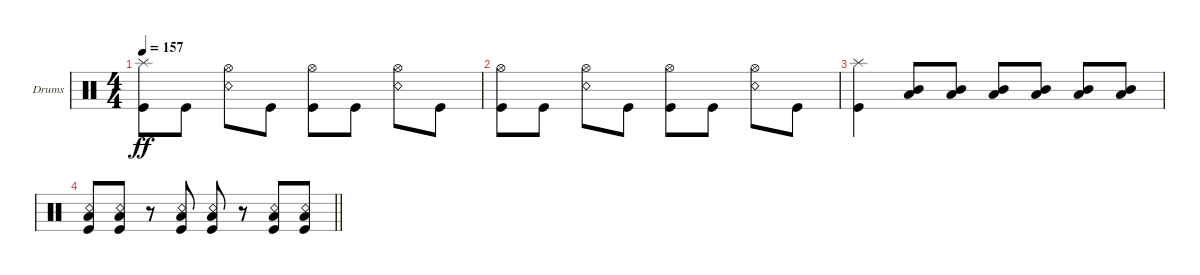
\defaultSystemsLayout 4
\bracketExtendMode groupsimilarinstruments
\firstSystemTrackNameOrientation horizontal
\otherSystemsTrackNameOrientation horizontal
\track ("Drumkit" "Drums") {instrument percussion}
\staff {score}
\articulation defaults
\ts (4 4)
\tempo 157
\clef neutral
\ks c
("Kick (hit)" "Splash (hit)").8{dy ff} "Kick (hit)".8 ("Hi-Hat (open)" "Snare (rim shot)").8 "Kick (hit)".8 ("Hi-Hat (open)" "Kick (hit)").8 "Kick (hit)".8 ("Hi-Hat (open)" "Snare (rim shot)").8 "Kick (hit)".8 |
("Kick (hit)" "Hi-Hat (open)").8 "Kick (hit)".8 ("Hi-Hat (open)" "Snare (rim shot)").8 "Kick (hit)".8 ("Hi-Hat (open)" "Kick (hit)").8 "Kick (hit)".8 ("Hi-Hat (open)" "Snare (rim shot)").8 "Kick (hit)".8 |
("Splash (hit)" "Kick (hit)").4 ("Low Tom (hit)" "Mid Tom (hit)").8 ("Low Tom (hit)" "Mid Tom (hit)").8 ("Low Tom (hit)" "Mid Tom (hit)").8 ("Low Tom (hit)" "Mid Tom (hit)").8 ("Low Tom (hit)" "Mid Tom (hit)").8 ("Low Tom (hit)" "Mid Tom (hit)").8 |
\barLineRight lightlight
("Low Tom (hit)" "Kick (hit)" "Snare (rim shot)").8 ("Low Tom (hit)" "Kick (hit)" "Snare (rim shot)").8 r.8 ("Low Tom (hit)" "Kick (hit)" "Snare (rim shot)").8 ("Low Tom (hit)" "Kick (hit)" "Snare (rim shot)").8 r.8 ("Low Tom (hit)" "Kick (hit)" "Snare (rim shot)").8 ("Low Tom (hit)" "Kick (hit)" "Snare (rim shot)").8
